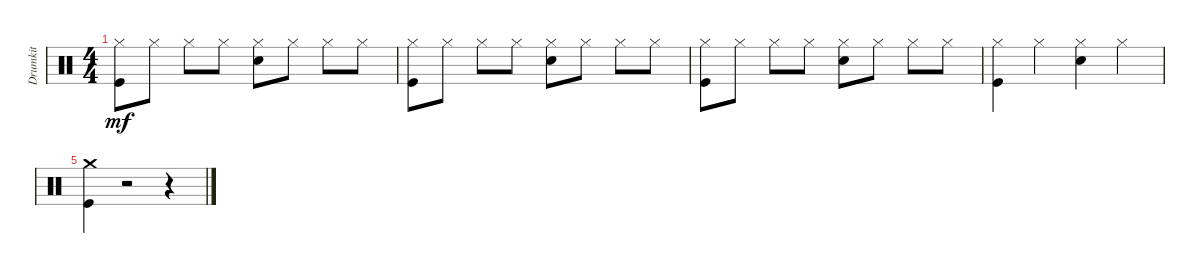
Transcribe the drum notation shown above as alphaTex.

\bracketExtendMode groupsimilarinstruments
\multiTrackTrackNamePolicy hidden
\firstSystemTrackNameMode fullname
\otherSystemsTrackNameMode fullname
\otherSystemsTrackNameOrientation horizontal
\defaultBarNumberDisplay FirstOfSystem
\track ("Drumkit" "Drums") {multiBarRest instrument percussion}
\staff {score}
\articulation defaults
\ts (4 4)
\tempo (150 hide)
\clef neutral
\ks c
("Hi-Hat (closed)" "Kick (hit)").8{dy mf} "Hi-Hat (closed)".8 "Hi-Hat (closed)".8 "Hi-Hat (closed)".8 ("Hi-Hat (closed)" "Snare (hit) 2").8 "Hi-Hat (closed)".8 "Hi-Hat (closed)".8 "Hi-Hat (closed)".8 |
("Hi-Hat (closed)" "Kick (hit)").8 "Hi-Hat (closed)".8 "Hi-Hat (closed)".8 "Hi-Hat (closed)".8 ("Hi-Hat (closed)" "Snare (hit) 2").8 "Hi-Hat (closed)".8 "Hi-Hat (closed)".8 "Hi-Hat (closed)".8 |
("Hi-Hat (closed)" "Kick (hit)").8 "Hi-Hat (closed)".8 "Hi-Hat (closed)".8 "Hi-Hat (closed)".8 ("Hi-Hat (closed)" "Snare (hit) 2").8 "Hi-Hat (closed)".8 "Hi-Hat (closed)".8 "Hi-Hat (closed)".8 |
("Hi-Hat (closed)" "Kick (hit)").4 "Hi-Hat (closed)".4 ("Hi-Hat (closed)" "Snare (hit) 2").4 "Hi-Hat (closed)".4 |
("Crash medium (hit)" "Kick (hit)").4 r.2 r.4
